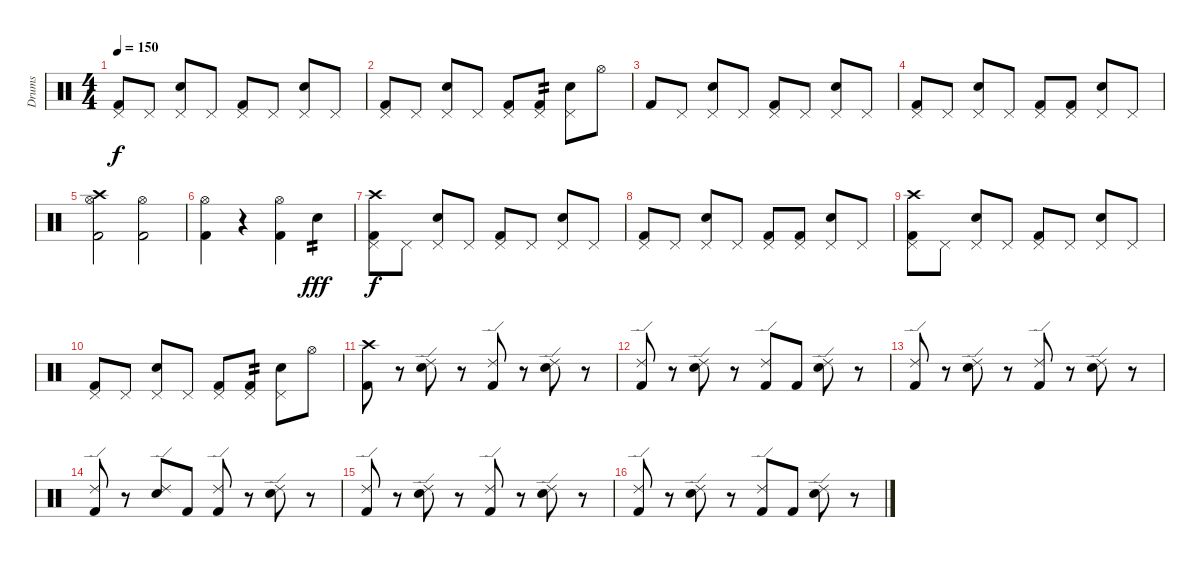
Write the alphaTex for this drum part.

\track ("Drums" "Drums") {instrument percussion}
\staff {score}
\articulation defaults
\ts (4 4)
\tempo 150
\clef neutral
\ks c
("Pedal Hi-Hat (hit)" "Kick (hit) 2").8{dy f} "Pedal Hi-Hat (hit)".8 ("Pedal Hi-Hat (hit)" "Snare (hit) 2").8 "Pedal Hi-Hat (hit)".8 ("Pedal Hi-Hat (hit)" "Kick (hit) 2").8 "Pedal Hi-Hat (hit)".8 ("Pedal Hi-Hat (hit)" "Snare (hit) 2").8 "Pedal Hi-Hat (hit)".8 |
("Pedal Hi-Hat (hit)" "Kick (hit) 2").8 "Pedal Hi-Hat (hit)".8 ("Pedal Hi-Hat (hit)" "Snare (hit) 2").8 "Pedal Hi-Hat (hit)".8 ("Pedal Hi-Hat (hit)" "Kick (hit) 2").8 ("Pedal Hi-Hat (hit)" "Kick (hit) 2").8{tp 2} ("Pedal Hi-Hat (hit)" "Snare (hit) 2").8 "Hi-Hat (open)".8 |
"Kick (hit) 2".8 "Pedal Hi-Hat (hit)".8 ("Pedal Hi-Hat (hit)" "Snare (hit) 2").8 "Pedal Hi-Hat (hit)".8 ("Pedal Hi-Hat (hit)" "Kick (hit) 2").8 "Pedal Hi-Hat (hit)".8 ("Pedal Hi-Hat (hit)" "Snare (hit) 2").8 "Pedal Hi-Hat (hit)".8 |
("Pedal Hi-Hat (hit)" "Kick (hit) 2").8 "Pedal Hi-Hat (hit)".8 ("Pedal Hi-Hat (hit)" "Snare (hit) 2").8 "Pedal Hi-Hat (hit)".8 ("Pedal Hi-Hat (hit)" "Kick (hit) 2").8 ("Pedal Hi-Hat (hit)" "Kick (hit) 2").8 ("Pedal Hi-Hat (hit)" "Snare (hit) 2").8 "Pedal Hi-Hat (hit)".8 |
("Crash high (hit)" "Hi-Hat (open)" "Kick (hit) 2").2 ("Hi-Hat (open)" "Kick (hit) 2").2 |
("Hi-Hat (open)" "Kick (hit) 2").4 r.4 ("Hi-Hat (open)" "Kick (hit) 2").4 "Snare (hit) 2".4{tp 2 dy fff} |
("Crash high (hit)" "Pedal Hi-Hat (hit)" "Kick (hit) 2").8{dy f} "Pedal Hi-Hat (hit)".8 ("Pedal Hi-Hat (hit)" "Snare (hit) 2").8 "Pedal Hi-Hat (hit)".8 ("Pedal Hi-Hat (hit)" "Kick (hit) 2").8 "Pedal Hi-Hat (hit)".8 ("Pedal Hi-Hat (hit)" "Snare (hit) 2").8 "Pedal Hi-Hat (hit)".8 |
("Pedal Hi-Hat (hit)" "Kick (hit) 2").8 "Pedal Hi-Hat (hit)".8 ("Pedal Hi-Hat (hit)" "Snare (hit) 2").8 "Pedal Hi-Hat (hit)".8 ("Pedal Hi-Hat (hit)" "Kick (hit) 2").8 ("Pedal Hi-Hat (hit)" "Kick (hit) 2").8 ("Pedal Hi-Hat (hit)" "Snare (hit) 2").8 "Pedal Hi-Hat (hit)".8 |
("Crash high (hit)" "Pedal Hi-Hat (hit)" "Kick (hit) 2").8 "Pedal Hi-Hat (hit)".8 ("Pedal Hi-Hat (hit)" "Snare (hit) 2").8 "Pedal Hi-Hat (hit)".8 ("Pedal Hi-Hat (hit)" "Kick (hit) 2").8 "Pedal Hi-Hat (hit)".8 ("Pedal Hi-Hat (hit)" "Snare (hit) 2").8 "Pedal Hi-Hat (hit)".8 |
("Pedal Hi-Hat (hit)" "Kick (hit) 2").8 "Pedal Hi-Hat (hit)".8 ("Pedal Hi-Hat (hit)" "Snare (hit) 2").8 "Pedal Hi-Hat (hit)".8 ("Pedal Hi-Hat (hit)" "Kick (hit) 2").8 ("Pedal Hi-Hat (hit)" "Kick (hit) 2").8{tp 2} ("Pedal Hi-Hat (hit)" "Snare (hit) 2").8 "Hi-Hat (open)".8 |
("Crash high (hit)" "Kick (hit) 2").8 r.8 ("Ride (edge) 2" "Snare (hit) 2").8 r.8 ("Ride (edge) 2" "Kick (hit) 2").8 r.8 ("Ride (edge) 2" "Snare (hit) 2").8 r.8 |
("Ride (edge) 2" "Kick (hit) 2").8 r.8 ("Ride (edge) 2" "Snare (hit) 2").8 r.8 ("Ride (edge) 2" "Kick (hit) 2").8 "Kick (hit) 2".8 ("Ride (edge) 2" "Snare (hit) 2").8 r.8 |
("Ride (edge) 2" "Kick (hit) 2").8 r.8 ("Ride (edge) 2" "Snare (hit) 2").8 r.8 ("Ride (edge) 2" "Kick (hit) 2").8 r.8 ("Ride (edge) 2" "Snare (hit) 2").8 r.8 |
("Ride (edge) 2" "Kick (hit) 2").8 r.8 ("Ride (edge) 2" "Snare (hit) 2").8 "Kick (hit) 2".8 ("Ride (edge) 2" "Kick (hit) 2").8 r.8 ("Ride (edge) 2" "Snare (hit) 2").8 r.8 |
("Ride (edge) 2" "Kick (hit) 2").8 r.8 ("Ride (edge) 2" "Snare (hit) 2").8 r.8 ("Ride (edge) 2" "Kick (hit) 2").8 r.8 ("Ride (edge) 2" "Snare (hit) 2").8 r.8 |
("Ride (edge) 2" "Kick (hit) 2").8 r.8 ("Ride (edge) 2" "Snare (hit) 2").8 r.8 ("Ride (edge) 2" "Kick (hit) 2").8 "Kick (hit) 2".8 ("Ride (edge) 2" "Snare (hit) 2").8 r.8
